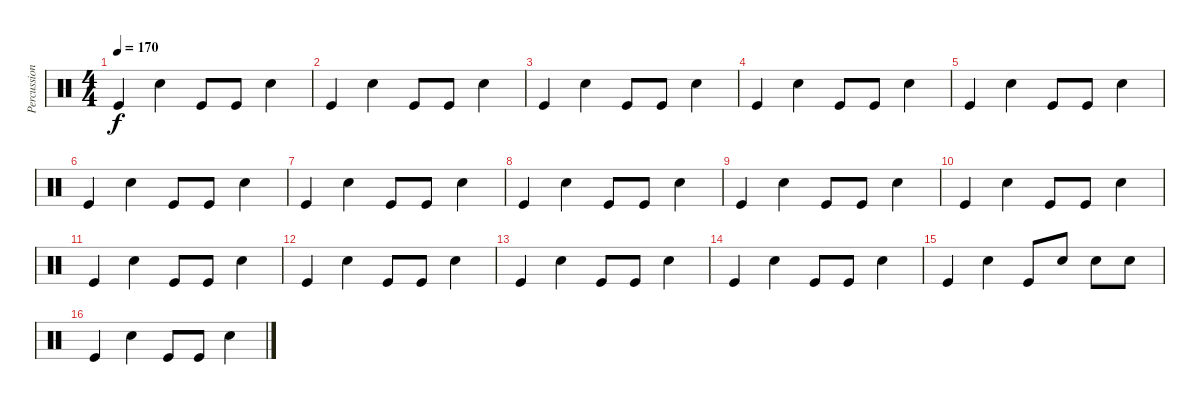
\track ("Percussion" "Percussion") {instrument percussion}
\staff {score}
\articulation defaults
\ts (4 4)
\tempo 170
\clef neutral
\ks c "Kick (hit)".4{dy f} "Snare (hit) 2".4 "Kick (hit)".8 "Kick (hit)".8 "Snare (hit) 2".4
|
"Kick (hit)".4 "Snare (hit) 2".4 "Kick (hit)".8 "Kick (hit)".8 "Snare (hit) 2".4 |
"Kick (hit)".4 "Snare (hit) 2".4 "Kick (hit)".8 "Kick (hit)".8 "Snare (hit) 2".4 |
"Kick (hit)".4 "Snare (hit) 2".4 "Kick (hit)".8 "Kick (hit)".8 "Snare (hit) 2".4 |
"Kick (hit)".4 "Snare (hit) 2".4 "Kick (hit)".8 "Kick (hit)".8 "Snare (hit) 2".4 |
"Kick (hit)".4 "Snare (hit) 2".4 "Kick (hit)".8 "Kick (hit)".8 "Snare (hit) 2".4 |
"Kick (hit)".4 "Snare (hit) 2".4 "Kick (hit)".8 "Kick (hit)".8 "Snare (hit) 2".4 |
"Kick (hit)".4 "Snare (hit) 2".4 "Kick (hit)".8 "Kick (hit)".8 "Snare (hit) 2".4 |
"Kick (hit)".4 "Snare (hit) 2".4 "Kick (hit)".8 "Kick (hit)".8 "Snare (hit) 2".4 |
"Kick (hit)".4 "Snare (hit) 2".4 "Kick (hit)".8 "Kick (hit)".8 "Snare (hit) 2".4 |
"Kick (hit)".4 "Snare (hit) 2".4 "Kick (hit)".8 "Kick (hit)".8 "Snare (hit) 2".4 |
"Kick (hit)".4 "Snare (hit) 2".4 "Kick (hit)".8 "Kick (hit)".8 "Snare (hit) 2".4 |
"Kick (hit)".4 "Snare (hit) 2".4 "Kick (hit)".8 "Kick (hit)".8 "Snare (hit) 2".4 |
"Kick (hit)".4 "Snare (hit) 2".4 "Kick (hit)".8 "Kick (hit)".8 "Snare (hit) 2".4 |
"Kick (hit)".4 "Snare (hit) 2".4 "Kick (hit)".8 "Snare (hit) 2".8 "Snare (hit) 2".8 "Snare (hit) 2".8 |
"Kick (hit)".4 "Snare (hit) 2".4 "Kick (hit)".8 "Kick (hit)".8 "Snare (hit) 2".4
